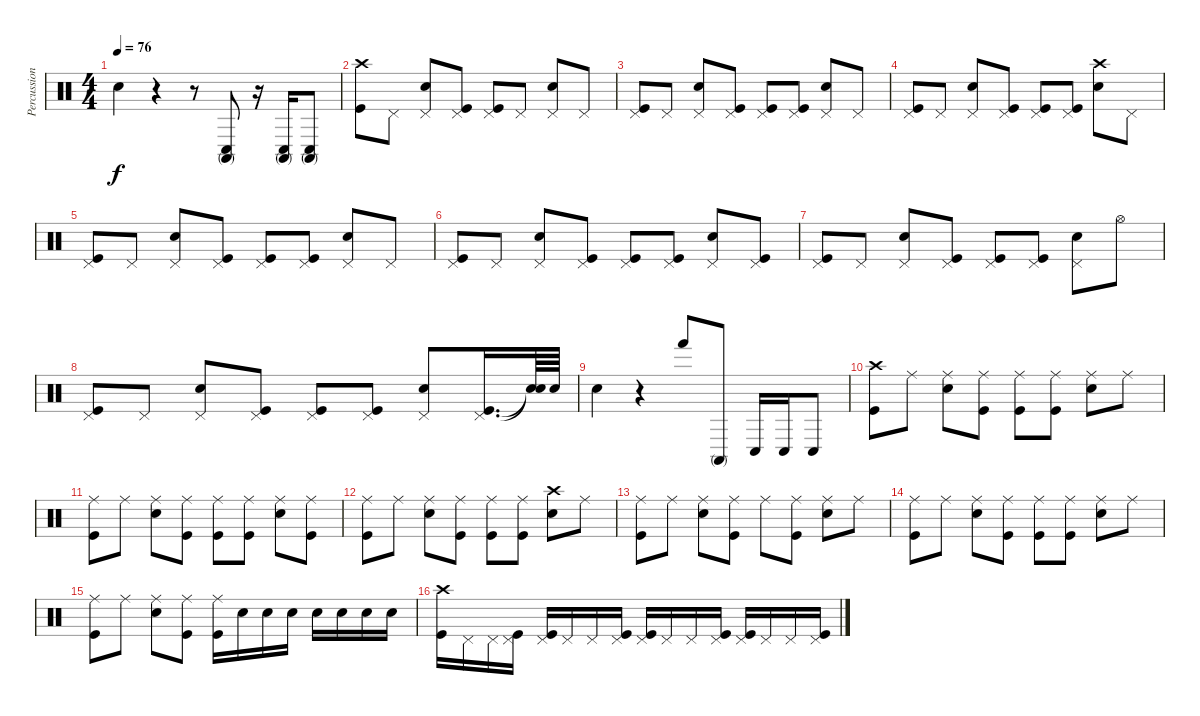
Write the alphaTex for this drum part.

\track ("Percussions" "Percussion") {instrument percussion}
\staff {score}
\articulation defaults
\ts (4 4)
\tempo 76
\clef neutral
\ks c "Electric Snare (hit)".4{dy f}
r.4 r.8 ("Conga high (mute)" "Conga low (hit)").8 r.16 ("Conga low (hit)" "Conga high (mute)").16 ("Conga low (hit)" "Conga high (mute)").8 |
("Kick (hit)" "Crash high (hit)").8 "Pedal Hi-Hat (hit)".8 ("Pedal Hi-Hat (hit)" "Electric Snare (hit)").8 ("Pedal Hi-Hat (hit)" "Kick (hit)").8 ("Pedal Hi-Hat (hit)" "Kick (hit)").8 "Pedal Hi-Hat (hit)".8 ("Pedal Hi-Hat (hit)" "Electric Snare (hit)").8 "Pedal Hi-Hat (hit)".8 |
("Pedal Hi-Hat (hit)" "Kick (hit)").8 "Pedal Hi-Hat (hit)".8 ("Pedal Hi-Hat (hit)" "Electric Snare (hit)").8 ("Pedal Hi-Hat (hit)" "Kick (hit)").8 ("Pedal Hi-Hat (hit)" "Kick (hit)").8 ("Pedal Hi-Hat (hit)" "Kick (hit)").8 ("Pedal Hi-Hat (hit)" "Electric Snare (hit)").8 "Pedal Hi-Hat (hit)".8 |
("Pedal Hi-Hat (hit)" "Kick (hit)").8 "Pedal Hi-Hat (hit)".8 ("Pedal Hi-Hat (hit)" "Electric Snare (hit)").8 ("Pedal Hi-Hat (hit)" "Kick (hit)").8 ("Pedal Hi-Hat (hit)" "Kick (hit)").8 ("Pedal Hi-Hat (hit)" "Kick (hit)").8 ("Electric Snare (hit)" "Crash high (hit)").8 "Pedal Hi-Hat (hit)".8 |
("Kick (hit)" "Pedal Hi-Hat (hit)").8 "Pedal Hi-Hat (hit)".8 ("Pedal Hi-Hat (hit)" "Electric Snare (hit)").8 ("Pedal Hi-Hat (hit)" "Kick (hit)").8 ("Pedal Hi-Hat (hit)" "Kick (hit)").8 ("Pedal Hi-Hat (hit)" "Kick (hit)").8 ("Pedal Hi-Hat (hit)" "Electric Snare (hit)").8 "Pedal Hi-Hat (hit)".8 |
("Pedal Hi-Hat (hit)" "Kick (hit)").8 "Pedal Hi-Hat (hit)".8 ("Pedal Hi-Hat (hit)" "Electric Snare (hit)").8 ("Pedal Hi-Hat (hit)" "Kick (hit)").8 ("Pedal Hi-Hat (hit)" "Kick (hit)").8 ("Pedal Hi-Hat (hit)" "Kick (hit)").8 ("Pedal Hi-Hat (hit)" "Electric Snare (hit)").8 ("Pedal Hi-Hat (hit)" "Kick (hit)").8 |
("Kick (hit)" "Pedal Hi-Hat (hit)").8 "Pedal Hi-Hat (hit)".8 ("Pedal Hi-Hat (hit)" "Electric Snare (hit)").8 ("Pedal Hi-Hat (hit)" "Kick (hit)").8 ("Pedal Hi-Hat (hit)" "Kick (hit)").8 ("Pedal Hi-Hat (hit)" "Kick (hit)").8 ("Pedal Hi-Hat (hit)" "Electric Snare (hit)").8 "Hi-Hat (open)".8 |
("Pedal Hi-Hat (hit)" "Kick (hit)").8 "Pedal Hi-Hat (hit)".8 ("Pedal Hi-Hat (hit)" "Electric Snare (hit)").8 ("Pedal Hi-Hat (hit)" "Kick (hit)").8 ("Pedal Hi-Hat (hit)" "Kick (hit)").8 ("Pedal Hi-Hat (hit)" "Kick (hit)").8 ("Pedal Hi-Hat (hit)" "Electric Snare (hit)").8 ("Pedal Hi-Hat (hit)" "Kick (hit)").16{d} ("Snare (hit)"{t} "Snare (hit)"{t}).64 "Electric Snare (hit)".64 |
"Electric Snare (hit)".4 r.4 "Hand (hit)".8 "Conga high (mute)".8 "Conga low (hit)".16 "Conga low (hit)".16 "Conga low (hit)".8 |
("Kick (hit)" "Crash high (hit)").8 "Ride (middle)".8 ("Electric Snare (hit)" "Ride (middle)").8 ("Kick (hit)" "Ride (middle)").8 ("Kick (hit)" "Ride (middle)").8 ("Kick (hit)" "Ride (middle)").8 ("Electric Snare (hit)" "Ride (middle)").8 "Ride (middle)".8 |
("Kick (hit)" "Ride (middle)").8 "Ride (middle)".8 ("Electric Snare (hit)" "Ride (middle)").8 ("Kick (hit)" "Ride (middle)").8 ("Kick (hit)" "Ride (middle)").8 ("Kick (hit)" "Ride (middle)").8 ("Ride (middle)" "Electric Snare (hit)").8 ("Ride (middle)" "Kick (hit)").8 |
("Kick (hit)" "Ride (middle)").8 "Ride (middle)".8 ("Electric Snare (hit)" "Ride (middle)").8 ("Kick (hit)" "Ride (middle)").8 ("Kick (hit)" "Ride (middle)").8 ("Kick (hit)" "Ride (middle)").8 ("Electric Snare (hit)" "Crash high (hit)").8 "Ride (middle)".8 |
("Kick (hit)" "Ride (middle)").8 "Ride (middle)".8 ("Electric Snare (hit)" "Ride (middle)").8 ("Kick (hit)" "Ride (middle)").8 "Ride (middle)".8 ("Kick (hit)" "Ride (middle)").8 ("Electric Snare (hit)" "Ride (middle)").8 "Ride (middle)".8 |
("Kick (hit)" "Ride (middle)").8 "Ride (middle)".8 ("Electric Snare (hit)" "Ride (middle)").8 ("Kick (hit)" "Ride (middle)").8 ("Kick (hit)" "Ride (middle)").8 ("Kick (hit)" "Ride (middle)").8 ("Electric Snare (hit)" "Ride (middle)").8 "Ride (middle)".8 |
("Kick (hit)" "Ride (middle)").8 "Ride (middle)".8 ("Electric Snare (hit)" "Ride (middle)").8 ("Kick (hit)" "Ride (middle)").8 ("Kick (hit)" "Ride (middle)").16 "Electric Snare (hit)".16 "Electric Snare (hit)".16 "Electric Snare (hit)".16 "Electric Snare (hit)".16 "Electric Snare (hit)".16 "Electric Snare (hit)".16 "Electric Snare (hit)".16 |
("Crash high (hit)" "Kick (hit)").16 "Pedal Hi-Hat (hit)".16 "Pedal Hi-Hat (hit)".16 ("Pedal Hi-Hat (hit)" "Kick (hit)").16 ("Pedal Hi-Hat (hit)" "Kick (hit)").16 "Pedal Hi-Hat (hit)".16 "Pedal Hi-Hat (hit)".16 ("Pedal Hi-Hat (hit)" "Kick (hit)").16 ("Pedal Hi-Hat (hit)" "Kick (hit)").16 "Pedal Hi-Hat (hit)".16 "Pedal Hi-Hat (hit)".16 ("Pedal Hi-Hat (hit)" "Kick (hit)").16 ("Pedal Hi-Hat (hit)" "Kick (hit)").16 "Pedal Hi-Hat (hit)".16 "Pedal Hi-Hat (hit)".16 ("Pedal Hi-Hat (hit)" "Kick (hit)").16
